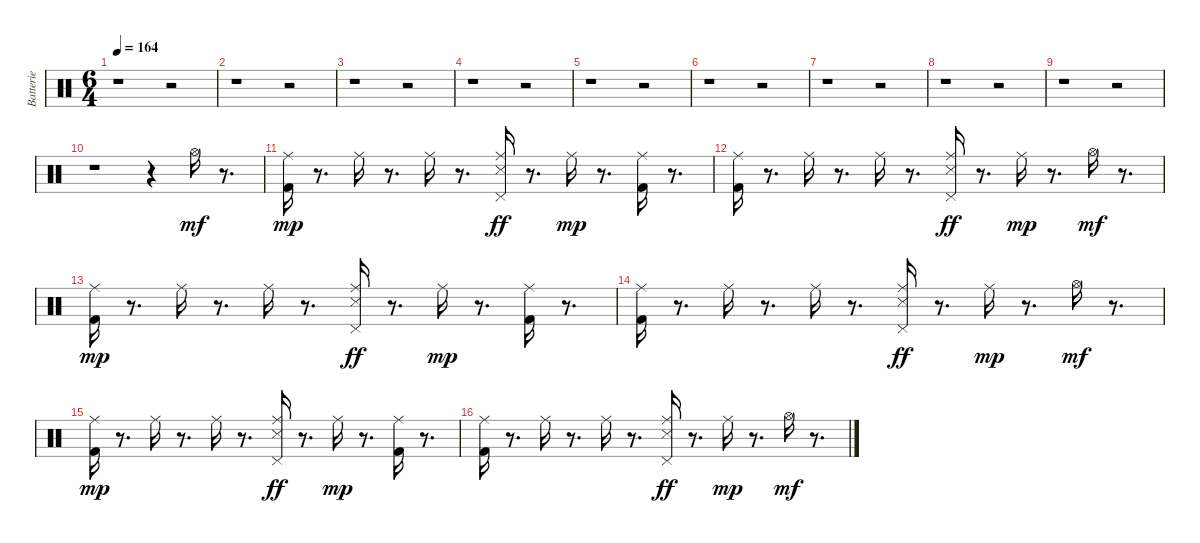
\track ("Batterie" "Batterie") {instrument percussion}
\staff {score}
\articulation defaults
\ts (6 4)
\tempo 164
\clef neutral
\ks c
r.1{dy mf} r.2 |
r.1 r.2 |
r.1 r.2 |
r.1 r.2 |
r.1 r.2 |
r.1 r.2 |
r.1 r.2 |
r.1 r.2 |
r.1 r.2 |
r.1 r.4 "Hi-Hat (open)".16{volume 14 balance 8} r.8{d} |
("Kick (hit) 2" "Ride (middle)").16{dy mp} r.8{d} "Ride (middle)".16 r.8{d} "Ride (middle)".16 r.8{d} ("Snare (side stick) 3" "Ride (middle)" "Pedal Hi-Hat (hit)").16{dy ff} r.8{d} "Ride (middle)".16{dy mp} r.8{d} ("Kick (hit) 2" "Ride (middle)").16 r.8{d} |
("Kick (hit) 2" "Ride (middle)").16 r.8{d} "Ride (middle)".16 r.8{d} "Ride (middle)".16 r.8{d} ("Snare (side stick) 3" "Ride (middle)" "Pedal Hi-Hat (hit)").16{dy ff} r.8{d} "Ride (middle)".16{dy mp} r.8{d} "Hi-Hat (open)".16{dy mf} r.8{d} |
("Kick (hit) 2" "Ride (middle)").16{dy mp} r.8{d} "Ride (middle)".16 r.8{d} "Ride (middle)".16 r.8{d} ("Snare (side stick) 3" "Ride (middle)" "Pedal Hi-Hat (hit)").16{dy ff} r.8{d} "Ride (middle)".16{dy mp} r.8{d} ("Kick (hit) 2" "Ride (middle)").16 r.8{d} |
("Kick (hit) 2" "Ride (middle)").16 r.8{d} "Ride (middle)".16 r.8{d} "Ride (middle)".16 r.8{d} ("Snare (side stick) 3" "Ride (middle)" "Pedal Hi-Hat (hit)").16{dy ff} r.8{d} "Ride (middle)".16{dy mp} r.8{d} "Hi-Hat (open)".16{dy mf} r.8{d} |
("Kick (hit) 2" "Ride (middle)").16{dy mp} r.8{d} "Ride (middle)".16 r.8{d} "Ride (middle)".16 r.8{d} ("Snare (side stick) 3" "Ride (middle)" "Pedal Hi-Hat (hit)").16{dy ff} r.8{d} "Ride (middle)".16{dy mp} r.8{d} ("Kick (hit) 2" "Ride (middle)").16 r.8{d} |
("Kick (hit) 2" "Ride (middle)").16 r.8{d} "Ride (middle)".16 r.8{d} "Ride (middle)".16 r.8{d} ("Snare (side stick) 3" "Ride (middle)" "Pedal Hi-Hat (hit)").16{dy ff} r.8{d} "Ride (middle)".16{dy mp} r.8{d} "Hi-Hat (open)".16{dy mf} r.8{d}
